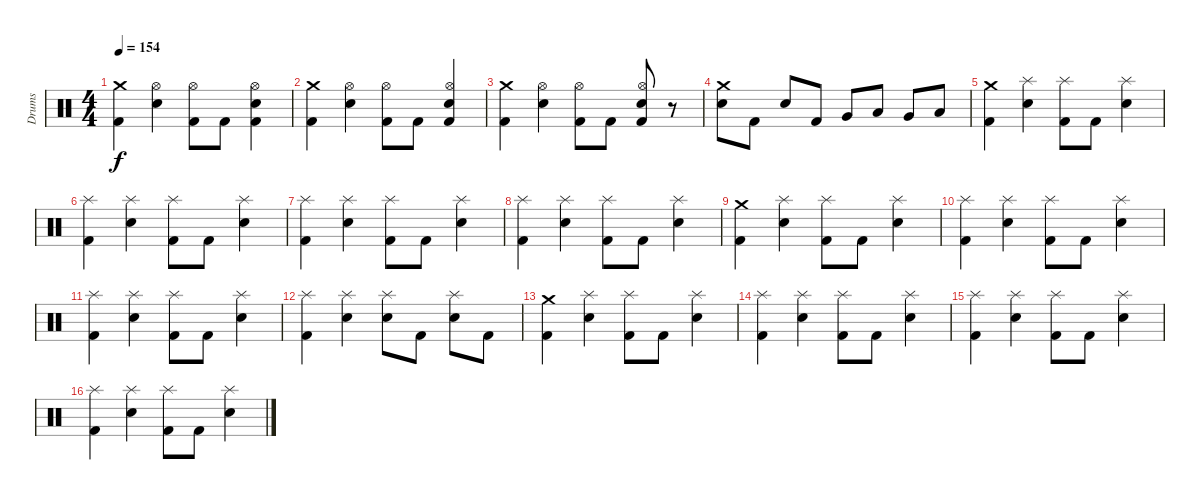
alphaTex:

\track ("Drums" "Drums") {instrument percussion}
\staff {score}
\articulation defaults
\ts (4 4)
\tempo 154
\clef neutral
\ks c
("Kick (hit) 2" "Crash medium (hit)").4{dy f} ("Snare (hit) 2" "Hi-Hat (open)").4 ("Kick (hit) 2" "Hi-Hat (open)").8 "Kick (hit) 2".8 ("Snare (hit) 2" "Hi-Hat (open)" "Kick (hit) 2").4 |
("Kick (hit) 2" "Crash medium (hit)").4 ("Electric Snare (hit)" "Hi-Hat (open)").4 ("Kick (hit) 2" "Hi-Hat (open)").8 "Kick (hit) 2".8 ("Electric Snare (hit)" "Hi-Hat (open)" "Kick (hit) 2").4 |
("Kick (hit) 2" "Crash medium (hit)").4 ("Snare (hit) 2" "Hi-Hat (open)").4 ("Kick (hit) 2" "Hi-Hat (open)").8 "Kick (hit) 2".8 ("Electric Snare (hit)" "Hi-Hat (open)" "Kick (hit) 2").8 r.8 |
("Crash medium (hit)" "Electric Snare (hit)").8 "Kick (hit) 2".8 "Electric Snare (hit)".8 "Kick (hit) 2".8 "Very Low Tom (hit)".8 "Low Tom (hit)".8 "Very Low Tom (hit)".8 "Low Floor Tom (hit)".8 |
("Kick (hit) 2" "Crash medium (hit)").4 ("Splash (hit)" "Electric Snare (hit)").4 ("Kick (hit) 2" "Splash (hit)").8 "Kick (hit) 2".8 ("Splash (hit)" "Electric Snare (hit)").4 |
("Kick (hit) 2" "Splash (hit)").4 ("Splash (hit)" "Electric Snare (hit)").4 ("Kick (hit) 2" "Splash (hit)").8 "Kick (hit) 2".8 ("Splash (hit)" "Electric Snare (hit)").4 |
("Kick (hit) 2" "Splash (hit)").4 ("Electric Snare (hit)" "Splash (hit)").4 ("Kick (hit) 2" "Splash (hit)").8 "Kick (hit) 2".8 ("Electric Snare (hit)" "Splash (hit)").4 |
("Kick (hit) 2" "Splash (hit)").4 ("Electric Snare (hit)" "Splash (hit)").4 ("Kick (hit) 2" "Splash (hit)").8 "Kick (hit) 2".8 ("Electric Snare (hit)" "Splash (hit)").4 |
("Kick (hit) 2" "Crash medium (hit)").4 ("Splash (hit)" "Electric Snare (hit)").4 ("Kick (hit) 2" "Splash (hit)").8 "Kick (hit) 2".8 ("Splash (hit)" "Electric Snare (hit)").4 |
("Kick (hit) 2" "Splash (hit)").4 ("Splash (hit)" "Electric Snare (hit)").4 ("Kick (hit) 2" "Splash (hit)").8 "Kick (hit) 2".8 ("Splash (hit)" "Electric Snare (hit)").4 |
("Kick (hit) 2" "Splash (hit)").4 ("Electric Snare (hit)" "Splash (hit)").4 ("Kick (hit) 2" "Splash (hit)").8 "Kick (hit) 2".8 ("Electric Snare (hit)" "Splash (hit)").4 |
("Kick (hit) 2" "Splash (hit)").4 ("Electric Snare (hit)" "Splash (hit)").4 ("Snare (hit) 2" "Splash (hit)").8 "Kick (hit) 2".8 ("Electric Snare (hit)" "Splash (hit)").8 "Kick (hit) 2".8 |
("Kick (hit) 2" "Crash medium (hit)").4 ("Splash (hit)" "Electric Snare (hit)").4 ("Kick (hit) 2" "Splash (hit)").8 "Kick (hit) 2".8 ("Splash (hit)" "Electric Snare (hit)").4 |
("Kick (hit) 2" "Splash (hit)").4 ("Splash (hit)" "Electric Snare (hit)").4 ("Kick (hit) 2" "Splash (hit)").8 "Kick (hit) 2".8 ("Splash (hit)" "Electric Snare (hit)").4 |
("Kick (hit) 2" "Splash (hit)").4 ("Electric Snare (hit)" "Splash (hit)").4 ("Kick (hit) 2" "Splash (hit)").8 "Kick (hit) 2".8 ("Electric Snare (hit)" "Splash (hit)").4 |
("Kick (hit) 2" "Splash (hit)").4 ("Electric Snare (hit)" "Splash (hit)").4 ("Kick (hit) 2" "Splash (hit)").8 "Kick (hit) 2".8 ("Electric Snare (hit)" "Splash (hit)").4
